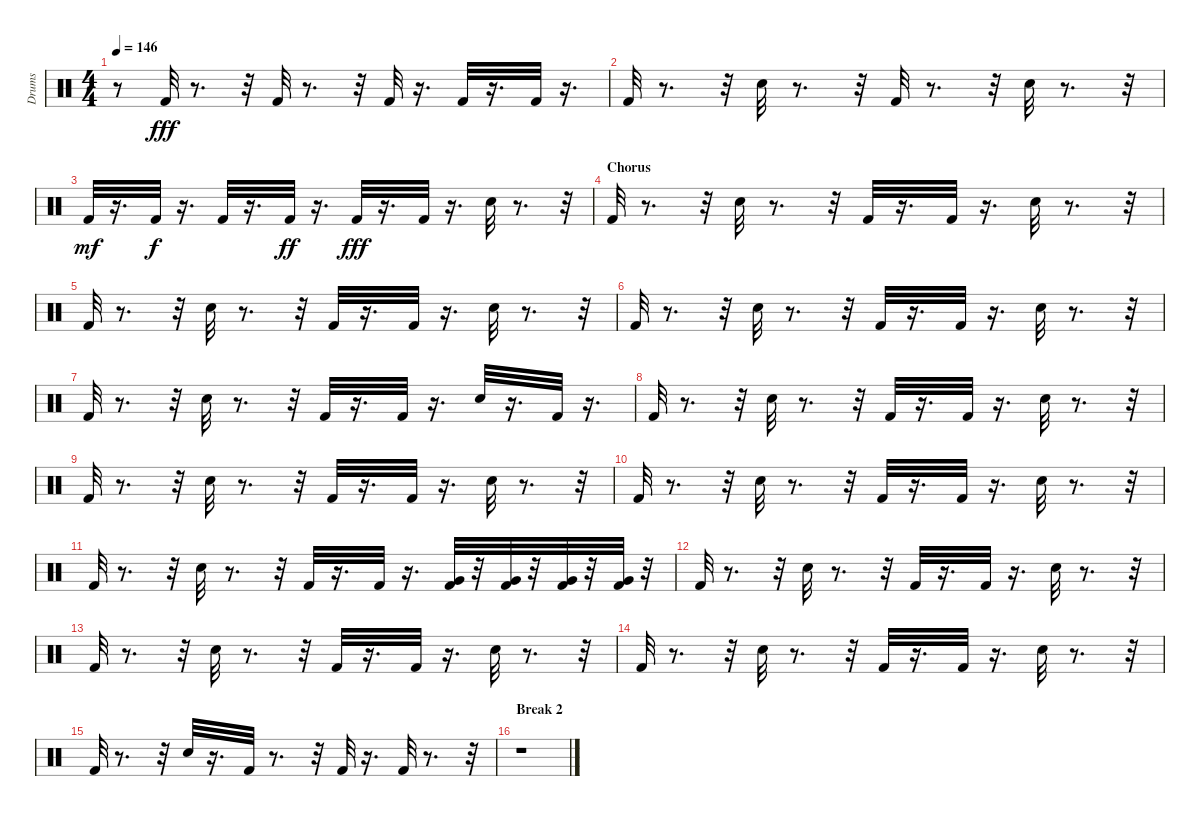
\track ("Drums" "Drums") {instrument percussion}
\staff {score}
\articulation defaults
\ts (4 4)
\tempo 146
\clef neutral
\ks c
r.8{dy fff} "Kick (hit) 2".32 r.8{d} r.32 "Kick (hit) 2".32 r.8{d} r.32 "Kick (hit) 2".32 r.16{d} "Kick (hit) 2".32 r.16{d} "Kick (hit) 2".32 r.16{d} |
"Kick (hit) 2".32 r.8{d} r.32 "Snare (hit) 2".32 r.8{d} r.32 "Kick (hit) 2".32 r.8{d} r.32 "Snare (hit) 2".32 r.8{d} r.32 |
"Kick (hit) 2".32{dy mf} r.16{d} "Kick (hit) 2".32{dy f} r.16{d} "Kick (hit) 2".32 r.16{d} "Kick (hit) 2".32{dy ff} r.16{d} "Kick (hit) 2".32{dy fff} r.16{d} "Kick (hit) 2".32 r.16{d} "Snare (hit) 2".32 r.8{d} r.32 |
\section ("" "Chorus")
"Kick (hit) 2".32 r.8{d} r.32 "Snare (hit) 2".32 r.8{d} r.32 "Kick (hit) 2".32 r.16{d} "Kick (hit) 2".32 r.16{d} "Snare (hit) 2".32 r.8{d} r.32 |
"Kick (hit) 2".32 r.8{d} r.32 "Snare (hit) 2".32 r.8{d} r.32 "Kick (hit) 2".32 r.16{d} "Kick (hit) 2".32 r.16{d} "Snare (hit) 2".32 r.8{d} r.32 |
"Kick (hit) 2".32 r.8{d} r.32 "Snare (hit) 2".32 r.8{d} r.32 "Kick (hit) 2".32 r.16{d} "Kick (hit) 2".32 r.16{d} "Snare (hit) 2".32 r.8{d} r.32 |
"Kick (hit) 2".32 r.8{d} r.32 "Snare (hit) 2".32 r.8{d} r.32 "Kick (hit) 2".32 r.16{d} "Kick (hit) 2".32 r.16{d} "Snare (hit) 2".32 r.16{d} "Kick (hit) 2".32 r.16{d} |
"Kick (hit) 2".32 r.8{d} r.32 "Snare (hit) 2".32 r.8{d} r.32 "Kick (hit) 2".32 r.16{d} "Kick (hit) 2".32 r.16{d} "Snare (hit) 2".32 r.8{d} r.32 |
"Kick (hit) 2".32 r.8{d} r.32 "Snare (hit) 2".32 r.8{d} r.32 "Kick (hit) 2".32 r.16{d} "Kick (hit) 2".32 r.16{d} "Snare (hit) 2".32 r.8{d} r.32 |
"Kick (hit) 2".32 r.8{d} r.32 "Snare (hit) 2".32 r.8{d} r.32 "Kick (hit) 2".32 r.16{d} "Kick (hit) 2".32 r.16{d} "Snare (hit) 2".32 r.8{d} r.32 |
"Kick (hit) 2".32 r.8{d} r.32 "Snare (hit) 2".32 r.8{d} r.32 "Kick (hit) 2".32 r.16{d} "Kick (hit) 2".32 r.16{d} ("Kick (hit) 2" "Very Low Tom (hit)").32 r.32 ("Kick (hit) 2" "Very Low Tom (hit)").32 r.32 ("Kick (hit) 2" "Very Low Tom (hit)").32 r.32 ("Kick (hit) 2" "Very Low Tom (hit)").32 r.32 |
"Kick (hit) 2".32 r.8{d} r.32 "Snare (hit) 2".32 r.8{d} r.32 "Kick (hit) 2".32 r.16{d} "Kick (hit) 2".32 r.16{d} "Snare (hit) 2".32 r.8{d} r.32 |
"Kick (hit) 2".32 r.8{d} r.32 "Snare (hit) 2".32 r.8{d} r.32 "Kick (hit) 2".32 r.16{d} "Kick (hit) 2".32 r.16{d} "Snare (hit) 2".32 r.8{d} r.32 |
"Kick (hit) 2".32 r.8{d} r.32 "Snare (hit) 2".32 r.8{d} r.32 "Kick (hit) 2".32 r.16{d} "Kick (hit) 2".32 r.16{d} "Snare (hit) 2".32 r.8{d} r.32 |
"Kick (hit) 2".32 r.8{d} r.32 "Snare (hit) 2".32 r.16{d} "Kick (hit) 2".32 r.8{d} r.32 "Kick (hit) 2".32 r.16{d} "Kick (hit) 2".32 r.8{d} r.32 |
\section ("" "Break 2")
r.1
